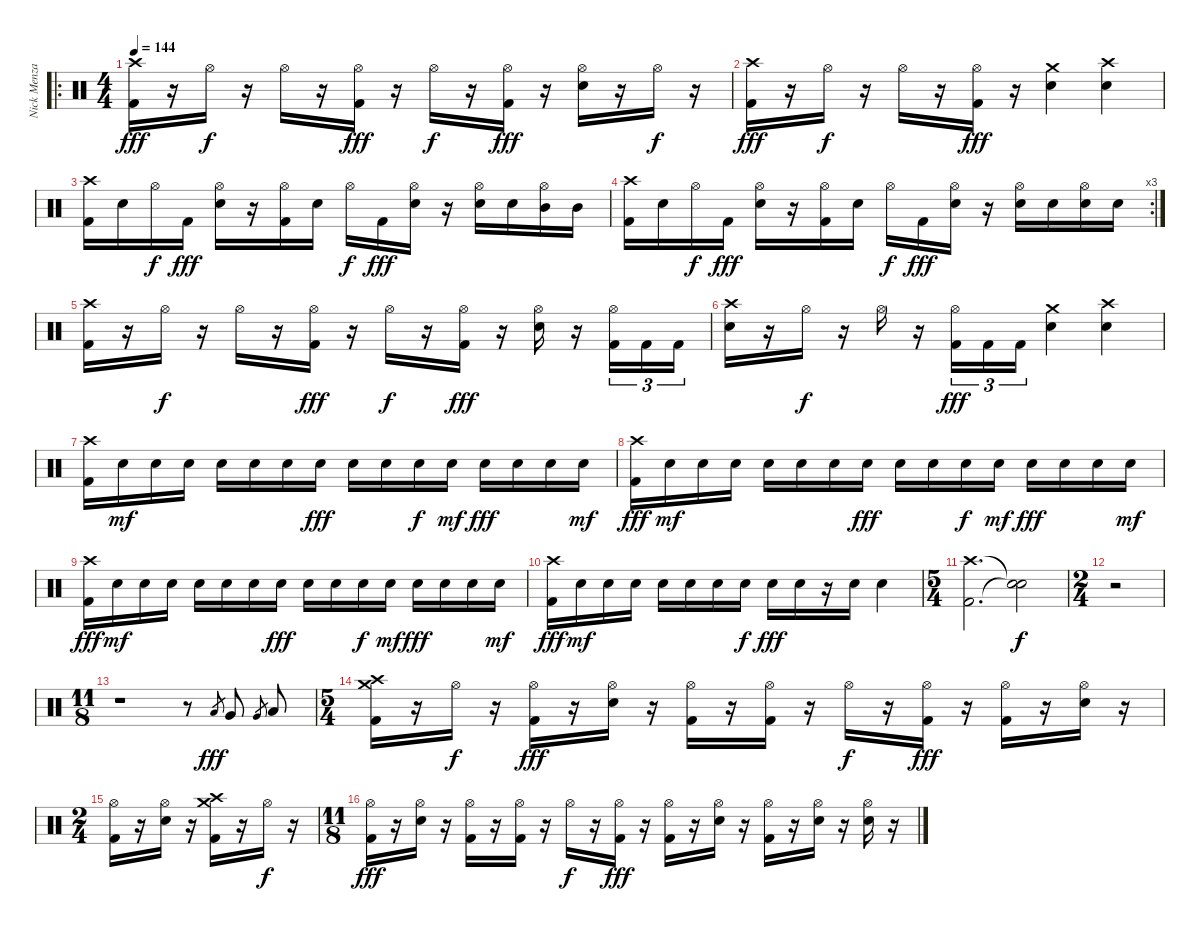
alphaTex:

\track ("Nick Menza" "Nick Menza") {instrument percussion}
\staff {score}
\articulation defaults
\ro
\ts (4 4)
\tempo 144
\clef neutral
\ks c
("Kick (hit) 2" "Crash high (hit)").16{dy fff} r.16 "Hi-Hat (open)".16{dy f} r.16 "Hi-Hat (open)".16 r.16 ("Kick (hit) 2" "Hi-Hat (open)").16{dy fff} r.16 "Hi-Hat (open)".16{dy f} r.16 ("Kick (hit) 2" "Hi-Hat (open)").16{dy fff} r.16 ("Electric Snare (hit)" "Hi-Hat (open)").16 r.16 "Hi-Hat (open)".16{dy f} r.16 |
("Kick (hit) 2" "Crash high (hit)").16{dy fff} r.16 "Hi-Hat (open)".16{dy f} r.16 "Hi-Hat (open)".16 r.16 ("Kick (hit) 2" "Hi-Hat (open)").16{dy fff} r.16 ("Electric Snare (hit)" "Crash medium (hit)").4 ("Electric Snare (hit)" "Crash high (hit)").4 |
("Kick (hit) 2" "Crash high (hit)").16 "Electric Snare (hit)".16 "Hi-Hat (open)".16{dy f} "Kick (hit) 2".16{dy fff} ("Electric Snare (hit)" "Hi-Hat (open)").16 r.16 ("Kick (hit) 2" "Hi-Hat (open)").16 "Electric Snare (hit)".16 "Hi-Hat (open)".16{dy f} "Kick (hit) 2".16{dy fff} ("Electric Snare (hit)" "Hi-Hat (open)").16 r.16 ("Electric Snare (hit)" "Hi-Hat (open)").16 "Electric Snare (hit)".16 ("Mid Tom (hit)" "Hi-Hat (open)").16 "Mid Tom (hit)".16 |
\rc 3
("Kick (hit) 2" "Crash high (hit)").16 "Electric Snare (hit)".16 "Hi-Hat (open)".16{dy f} "Kick (hit) 2".16{dy fff} ("Electric Snare (hit)" "Hi-Hat (open)").16 r.16 ("Kick (hit) 2" "Hi-Hat (open)").16 "Electric Snare (hit)".16 "Hi-Hat (open)".16{dy f} "Kick (hit) 2".16{dy fff} ("Electric Snare (hit)" "Hi-Hat (open)").16 r.16 ("Electric Snare (hit)" "Hi-Hat (open)").16 "Electric Snare (hit)".16 ("Electric Snare (hit)" "Hi-Hat (open)").16 "Electric Snare (hit)".16 |
("Kick (hit) 2" "Crash high (hit)").16 r.16 "Hi-Hat (open)".16{dy f} r.16 "Hi-Hat (open)".16 r.16 ("Kick (hit) 2" "Hi-Hat (open)").16{dy fff} r.16 "Hi-Hat (open)".16{dy f} r.16 ("Kick (hit) 2" "Hi-Hat (open)").16{dy fff} r.16 ("Electric Snare (hit)" "Hi-Hat (open)").16 r.16 ("Kick (hit) 2" "Hi-Hat (open)").16{tu (3 2)} "Kick (hit) 2".16{tu (3 2)} "Kick (hit) 2".16{tu (3 2)} |
("Electric Snare (hit)" "Crash high (hit)").16 r.16 "Hi-Hat (open)".16{dy f} r.16 "Hi-Hat (open)".16 r.16 ("Kick (hit) 2" "Hi-Hat (open)").16{tu (3 2) dy fff} "Kick (hit) 2".16{tu (3 2)} "Kick (hit) 2".16{tu (3 2)} ("Electric Snare (hit)" "Crash medium (hit)").4 ("Electric Snare (hit)" "Crash high (hit)").4 |
("Kick (hit) 2" "Crash high (hit)").16 "Electric Snare (hit)".16{dy mf} "Electric Snare (hit)".16 "Electric Snare (hit)".16 "Electric Snare (hit)".16 "Electric Snare (hit)".16 "Electric Snare (hit)".16 "Electric Snare (hit)".16{dy fff} "Electric Snare (hit)".16 "Electric Snare (hit)".16 "Electric Snare (hit)".16{dy f} "Electric Snare (hit)".16{dy mf} "Electric Snare (hit)".16{dy fff} "Electric Snare (hit)".16 "Electric Snare (hit)".16 "Electric Snare (hit)".16{dy mf} |
("Kick (hit) 2" "Crash high (hit)").16{dy fff} "Electric Snare (hit)".16{dy mf} "Electric Snare (hit)".16 "Electric Snare (hit)".16 "Electric Snare (hit)".16 "Electric Snare (hit)".16 "Electric Snare (hit)".16 "Electric Snare (hit)".16{dy fff} "Electric Snare (hit)".16 "Electric Snare (hit)".16 "Electric Snare (hit)".16{dy f} "Electric Snare (hit)".16{dy mf} "Electric Snare (hit)".16{dy fff} "Electric Snare (hit)".16 "Electric Snare (hit)".16 "Electric Snare (hit)".16{dy mf} |
("Kick (hit) 2" "Crash high (hit)").16{dy fff} "Electric Snare (hit)".16{dy mf} "Electric Snare (hit)".16 "Electric Snare (hit)".16 "Electric Snare (hit)".16 "Electric Snare (hit)".16 "Electric Snare (hit)".16 "Electric Snare (hit)".16{dy fff} "Electric Snare (hit)".16 "Electric Snare (hit)".16 "Electric Snare (hit)".16{dy f} "Electric Snare (hit)".16{dy mf} "Electric Snare (hit)".16{dy fff} "Electric Snare (hit)".16 "Electric Snare (hit)".16 "Electric Snare (hit)".16{dy mf} |
("Kick (hit) 2" "Crash high (hit)").16{dy fff} "Electric Snare (hit)".16{dy mf} "Electric Snare (hit)".16 "Electric Snare (hit)".16 "Electric Snare (hit)".16 "Electric Snare (hit)".16 "Electric Snare (hit)".16 "Electric Snare (hit)".16{dy f} "Electric Snare (hit)".16{dy fff} "Electric Snare (hit)".16 r.16 "Electric Snare (hit)".16 "Electric Snare (hit)".4 |
\ts (5 4)
("Kick (hit) 2" "Crash high (hit)").2{d} ("Snare (hit)"{t} "Snare (hit)"{t}).2{dy f} |
\ts (2 4)
r.2 |
\ts (11 8)
r.1 r.8 "Low Tom (hit)".8{gr dy fff} "Very Low Tom (hit)".8 "Very Low Tom (hit)".8{gr} "Low Floor Tom (hit)".8 |
\ts (5 4)
("Kick (hit) 2" "Crash high (hit)" "Crash medium (hit)").16 r.16 "Hi-Hat (open)".16{dy f} r.16 ("Kick (hit) 2" "Hi-Hat (open)").16{dy fff} r.16 ("Electric Snare (hit)" "Hi-Hat (open)").16 r.16 ("Kick (hit) 2" "Hi-Hat (open)").16 r.16 ("Kick (hit) 2" "Hi-Hat (open)").16 r.16 "Hi-Hat (open)".16{dy f} r.16 ("Kick (hit) 2" "Hi-Hat (open)").16{dy fff} r.16 ("Kick (hit) 2" "Hi-Hat (open)").16 r.16 ("Electric Snare (hit)" "Hi-Hat (open)").16 r.16 |
\ts (2 4)
("Kick (hit) 2" "Hi-Hat (open)").16 r.16 ("Electric Snare (hit)" "Hi-Hat (open)").16 r.16 ("Kick (hit) 2" "Crash high (hit)" "Crash medium (hit)").16 r.16 "Hi-Hat (open)".16{dy f} r.16 |
\ts (11 8)
("Kick (hit) 2" "Hi-Hat (open)").16{dy fff} r.16 ("Electric Snare (hit)" "Hi-Hat (open)").16 r.16 ("Kick (hit) 2" "Hi-Hat (open)").16 r.16 ("Kick (hit) 2" "Hi-Hat (open)").16 r.16 "Hi-Hat (open)".16{dy f} r.16 ("Kick (hit) 2" "Hi-Hat (open)").16{dy fff} r.16 ("Kick (hit) 2" "Hi-Hat (open)").16 r.16 ("Electric Snare (hit)" "Hi-Hat (open)").16 r.16 ("Kick (hit) 2" "Hi-Hat (open)").16 r.16 ("Electric Snare (hit)" "Hi-Hat (open)").16 r.16 ("Electric Snare (hit)" "Hi-Hat (open)").16 r.16
